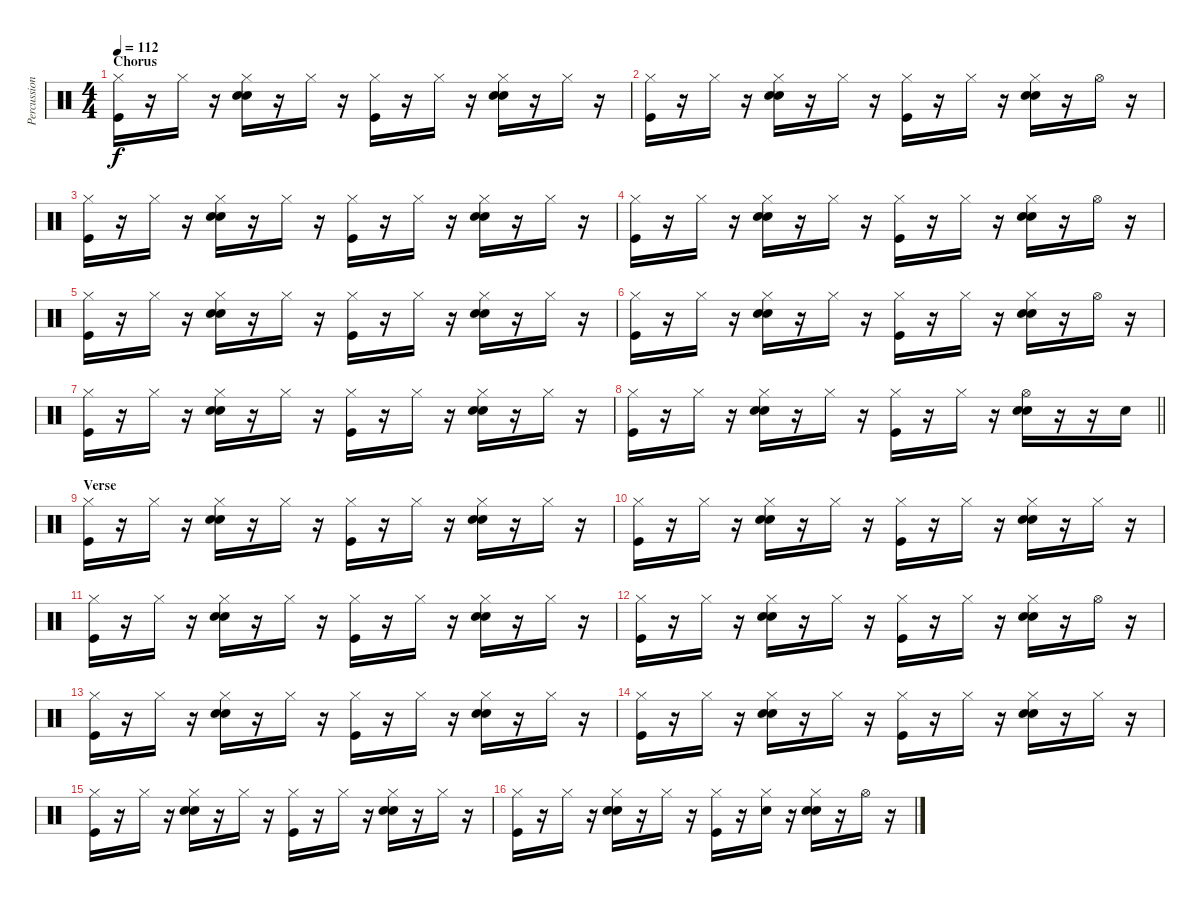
\track ("Percussion" "Percussion") {instrument percussion}
\staff {score}
\articulation defaults
\ts (4 4)
\section ("" "Chorus")
\tempo 112
\clef neutral
\ks c
("Hi-Hat (closed)" "Kick (hit)").16{dy f} r.16 "Hi-Hat (closed)".16 r.16 ("Hi-Hat (closed)" "Hand Clap (hit)" "Snare (hit) 2").16 r.16 "Hi-Hat (closed)".16 r.16 ("Hi-Hat (closed)" "Kick (hit)").16 r.16 "Hi-Hat (closed)".16 r.16 ("Hi-Hat (closed)" "Hand Clap (hit)" "Snare (hit) 2").16 r.16 "Hi-Hat (closed)".16 r.16 |
("Hi-Hat (closed)" "Kick (hit)").16 r.16 "Hi-Hat (closed)".16 r.16 ("Hi-Hat (closed)" "Hand Clap (hit)" "Snare (hit) 2").16 r.16 "Hi-Hat (closed)".16 r.16 ("Hi-Hat (closed)" "Kick (hit)").16 r.16 "Hi-Hat (closed)".16 r.16 ("Hi-Hat (closed)" "Hand Clap (hit)" "Snare (hit) 2").16 r.16 "Hi-Hat (open)".16 r.16 |
("Hi-Hat (closed)" "Kick (hit)").16 r.16 "Hi-Hat (closed)".16 r.16 ("Hi-Hat (closed)" "Hand Clap (hit)" "Snare (hit) 2").16 r.16 "Hi-Hat (closed)".16 r.16 ("Hi-Hat (closed)" "Kick (hit)").16 r.16 "Hi-Hat (closed)".16 r.16 ("Hi-Hat (closed)" "Hand Clap (hit)" "Snare (hit) 2").16 r.16 "Hi-Hat (closed)".16 r.16 |
("Hi-Hat (closed)" "Kick (hit)").16 r.16 "Hi-Hat (closed)".16 r.16 ("Hi-Hat (closed)" "Hand Clap (hit)" "Snare (hit) 2").16 r.16 "Hi-Hat (closed)".16 r.16 ("Hi-Hat (closed)" "Kick (hit)").16 r.16 "Hi-Hat (closed)".16 r.16 ("Hi-Hat (closed)" "Hand Clap (hit)" "Snare (hit) 2").16 r.16 "Hi-Hat (open)".16 r.16 |
("Hi-Hat (closed)" "Kick (hit)").16 r.16 "Hi-Hat (closed)".16 r.16 ("Hi-Hat (closed)" "Hand Clap (hit)" "Snare (hit) 2").16 r.16 "Hi-Hat (closed)".16 r.16 ("Hi-Hat (closed)" "Kick (hit)").16 r.16 "Hi-Hat (closed)".16 r.16 ("Hi-Hat (closed)" "Hand Clap (hit)" "Snare (hit) 2").16 r.16 "Hi-Hat (closed)".16 r.16 |
("Hi-Hat (closed)" "Kick (hit)").16 r.16 "Hi-Hat (closed)".16 r.16 ("Hi-Hat (closed)" "Hand Clap (hit)" "Snare (hit) 2").16 r.16 "Hi-Hat (closed)".16 r.16 ("Hi-Hat (closed)" "Kick (hit)").16 r.16 "Hi-Hat (closed)".16 r.16 ("Hi-Hat (closed)" "Hand Clap (hit)" "Snare (hit) 2").16 r.16 "Hi-Hat (open)".16 r.16 |
("Hi-Hat (closed)" "Kick (hit)").16 r.16 "Hi-Hat (closed)".16 r.16 ("Hi-Hat (closed)" "Hand Clap (hit)" "Snare (hit) 2").16 r.16 "Hi-Hat (closed)".16 r.16 ("Hi-Hat (closed)" "Kick (hit)").16 r.16 "Hi-Hat (closed)".16 r.16 ("Hi-Hat (closed)" "Hand Clap (hit)" "Snare (hit) 2").16 r.16 "Hi-Hat (closed)".16 r.16 |
\barLineRight lightlight
("Hi-Hat (closed)" "Kick (hit)").16 r.16 "Hi-Hat (closed)".16 r.16 ("Hi-Hat (closed)" "Hand Clap (hit)" "Snare (hit) 2").16 r.16 "Hi-Hat (closed)".16 r.16 ("Hi-Hat (closed)" "Kick (hit)").16 r.16 "Hi-Hat (closed)".16 r.16 ("Hi-Hat (open)" "Hand Clap (hit)" "Snare (hit) 2").16 r.16 r.16 "Snare (hit) 2".16 |
\section ("" "Verse")
("Hi-Hat (closed)" "Kick (hit)").16 r.16 "Hi-Hat (closed)".16 r.16 ("Hi-Hat (closed)" "Hand Clap (hit)" "Snare (hit) 2").16 r.16 "Hi-Hat (closed)".16 r.16 ("Hi-Hat (closed)" "Kick (hit)").16 r.16 "Hi-Hat (closed)".16 r.16 ("Hi-Hat (closed)" "Hand Clap (hit)" "Snare (hit) 2").16 r.16 "Hi-Hat (closed)".16 r.16 |
("Hi-Hat (closed)" "Kick (hit)").16 r.16 "Hi-Hat (closed)".16 r.16 ("Hi-Hat (closed)" "Hand Clap (hit)" "Snare (hit) 2").16 r.16 "Hi-Hat (closed)".16 r.16 ("Hi-Hat (closed)" "Kick (hit)").16 r.16 "Hi-Hat (closed)".16 r.16 ("Hi-Hat (closed)" "Hand Clap (hit)" "Snare (hit) 2").16 r.16 "Hi-Hat (closed)".16 r.16 |
("Hi-Hat (closed)" "Kick (hit)").16 r.16 "Hi-Hat (closed)".16 r.16 ("Hi-Hat (closed)" "Hand Clap (hit)" "Snare (hit) 2").16 r.16 "Hi-Hat (closed)".16 r.16 ("Hi-Hat (closed)" "Kick (hit)").16 r.16 "Hi-Hat (closed)".16 r.16 ("Hi-Hat (closed)" "Hand Clap (hit)" "Snare (hit) 2").16 r.16 "Hi-Hat (closed)".16 r.16 |
("Hi-Hat (closed)" "Kick (hit)").16 r.16 "Hi-Hat (closed)".16 r.16 ("Hi-Hat (closed)" "Hand Clap (hit)" "Snare (hit) 2").16 r.16 "Hi-Hat (closed)".16 r.16 ("Hi-Hat (closed)" "Kick (hit)").16 r.16 "Hi-Hat (closed)".16 r.16 ("Hi-Hat (closed)" "Hand Clap (hit)" "Snare (hit) 2").16 r.16 "Hi-Hat (open)".16 r.16 |
("Hi-Hat (closed)" "Kick (hit)").16 r.16 "Hi-Hat (closed)".16 r.16 ("Hi-Hat (closed)" "Hand Clap (hit)" "Snare (hit) 2").16 r.16 "Hi-Hat (closed)".16 r.16 ("Hi-Hat (closed)" "Kick (hit)").16 r.16 "Hi-Hat (closed)".16 r.16 ("Hi-Hat (closed)" "Hand Clap (hit)" "Snare (hit) 2").16 r.16 "Hi-Hat (closed)".16 r.16 |
("Hi-Hat (closed)" "Kick (hit)").16 r.16 "Hi-Hat (closed)".16 r.16 ("Hi-Hat (closed)" "Hand Clap (hit)" "Snare (hit) 2").16 r.16 "Hi-Hat (closed)".16 r.16 ("Hi-Hat (closed)" "Kick (hit)").16 r.16 "Hi-Hat (closed)".16 r.16 ("Hi-Hat (closed)" "Hand Clap (hit)" "Snare (hit) 2").16 r.16 "Hi-Hat (closed)".16 r.16 |
("Hi-Hat (closed)" "Kick (hit)").16 r.16 "Hi-Hat (closed)".16 r.16 ("Hi-Hat (closed)" "Hand Clap (hit)" "Snare (hit) 2").16 r.16 "Hi-Hat (closed)".16 r.16 ("Hi-Hat (closed)" "Kick (hit)").16 r.16 "Hi-Hat (closed)".16 r.16 ("Hi-Hat (closed)" "Hand Clap (hit)" "Snare (hit) 2").16 r.16 "Hi-Hat (closed)".16 r.16 |
("Hi-Hat (closed)" "Kick (hit)").16 r.16 "Hi-Hat (closed)".16 r.16 ("Hi-Hat (closed)" "Hand Clap (hit)" "Snare (hit) 2").16 r.16 "Hi-Hat (closed)".16 r.16 ("Hi-Hat (closed)" "Kick (hit)").16 r.16 ("Hi-Hat (closed)" "Snare (hit) 2").16 r.16 ("Hi-Hat (closed)" "Hand Clap (hit)" "Snare (hit) 2").16 r.16 "Hi-Hat (open)".16 r.16
